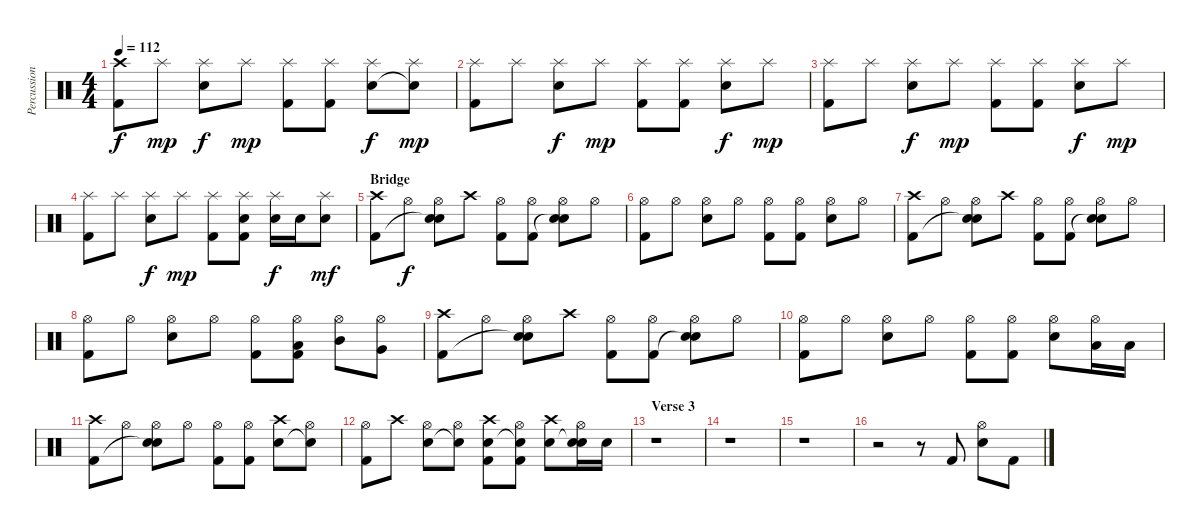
\track ("Percussion" "Percussion") {instrument percussion}
\staff {score}
\articulation defaults
\ts (4 4)
\tempo 112
\clef neutral
\ks c
("Crash high (hit)" "Kick (hit) 2").8{dy f} "Splash (hit)".8{dy mp} ("Splash (hit)" "Electric Snare (hit)").8{dy f} "Splash (hit)".8{dy mp} ("Splash (hit)" "Kick (hit) 2").8 ("Splash (hit)" "Kick (hit) 2").8 ("Splash (hit)" "Electric Snare (hit)").8{dy f} ("Splash (hit)" "Snare (hit)"{t}).8{dy mp} |
("Splash (hit)" "Kick (hit) 2").8 "Splash (hit)".8 ("Splash (hit)" "Electric Snare (hit)").8{dy f} "Splash (hit)".8{dy mp} ("Splash (hit)" "Kick (hit) 2").8 ("Splash (hit)" "Kick (hit) 2").8 ("Splash (hit)" "Electric Snare (hit)").8{dy f} "Splash (hit)".8{dy mp} |
("Splash (hit)" "Kick (hit) 2").8 "Splash (hit)".8 ("Splash (hit)" "Electric Snare (hit)").8{dy f} "Splash (hit)".8{dy mp} ("Splash (hit)" "Kick (hit) 2").8 ("Splash (hit)" "Kick (hit) 2").8 ("Splash (hit)" "Electric Snare (hit)").8{dy f} "Splash (hit)".8{dy mp} |
("Splash (hit)" "Kick (hit) 2").8 "Splash (hit)".8 ("Splash (hit)" "Electric Snare (hit)").8{dy f} "Splash (hit)".8{dy mp} ("Splash (hit)" "Kick (hit) 2").8 ("Splash (hit)" "Electric Snare (hit)" "Kick (hit) 2").8 ("Splash (hit)" "Electric Snare (hit)").16{dy f} "Electric Snare (hit)".16 ("Splash (hit)" "Snare (hit) 2").8{dy mf} |
\section ("" "Bridge")
("Crash high (hit)" "Kick (hit) 2").8{volume 16} "Hi-Hat (open)".8{dy f} ("Hi-Hat (open)" "Snare (hit)"{t} "Electric Snare (hit)").8 "Crash high (hit)".8 ("Hi-Hat (open)" "Kick (hit) 2").8 ("Hi-Hat (open)" "Kick (hit) 2").8 ("Hi-Hat (open)" "Snare (hit)"{t} "Electric Snare (hit)").8 "Hi-Hat (open)".8 |
("Hi-Hat (open)" "Kick (hit) 2").8{volume 16} "Hi-Hat (open)".8 ("Hi-Hat (open)" "Electric Snare (hit)").8 "Hi-Hat (open)".8 ("Hi-Hat (open)" "Kick (hit) 2").8 ("Hi-Hat (open)" "Kick (hit) 2").8 ("Hi-Hat (open)" "Electric Snare (hit)").8 "Hi-Hat (open)".8 |
("Crash high (hit)" "Kick (hit) 2").8{volume 16} "Hi-Hat (open)".8 ("Hi-Hat (open)" "Snare (hit)"{t} "Electric Snare (hit)").8 "Crash high (hit)".8 ("Hi-Hat (open)" "Kick (hit) 2").8 ("Hi-Hat (open)" "Kick (hit) 2").8 ("Hi-Hat (open)" "Snare (hit)"{t} "Electric Snare (hit)").8 "Hi-Hat (open)".8 |
("Hi-Hat (open)" "Kick (hit) 2").8{volume 16} "Hi-Hat (open)".8 ("Hi-Hat (open)" "Electric Snare (hit)").8 "Hi-Hat (open)".8 ("Hi-Hat (open)" "Kick (hit) 2").8 ("Hi-Hat (open)" "Low Tom (hit)" "Kick (hit) 2").8 ("Hi-Hat (open)" "Mid Tom (hit)").8 ("Hi-Hat (open)" "Very Low Tom (hit)").8 |
("Crash high (hit)" "Kick (hit) 2").8{volume 16} "Hi-Hat (open)".8 ("Hi-Hat (open)" "Snare (hit)"{t} "Electric Snare (hit)").8 "Crash high (hit)".8 ("Hi-Hat (open)" "Kick (hit) 2").8 ("Hi-Hat (open)" "Kick (hit) 2").8 ("Hi-Hat (open)" "Snare (hit)"{t} "Electric Snare (hit)").8 "Hi-Hat (open)".8 |
("Hi-Hat (open)" "Kick (hit) 2").8{volume 16} "Hi-Hat (open)".8 ("Hi-Hat (open)" "Electric Snare (hit)").8 "Hi-Hat (open)".8 ("Hi-Hat (open)" "Kick (hit) 2").8 ("Hi-Hat (open)" "Kick (hit) 2").8 ("Hi-Hat (open)" "Electric Snare (hit)").8 ("Hi-Hat (open)" "Low Floor Tom (hit)").16 "Low Floor Tom (hit)".16 |
("Crash high (hit)" "Kick (hit) 2").8{volume 16} "Hi-Hat (open)".8 ("Hi-Hat (open)" "Snare (hit)"{t} "Electric Snare (hit)").8 "Hi-Hat (open)".8 ("Hi-Hat (open)" "Kick (hit) 2").8 ("Hi-Hat (open)" "Kick (hit) 2").8 ("Crash high (hit)" "Electric Snare (hit)").8 ("Hi-Hat (open)" "Snare (hit)"{t}).8 |
("Hi-Hat (open)" "Kick (hit) 2").8{volume 16} "Crash high (hit)".8 ("Hi-Hat (open)" "Electric Snare (hit)").8 ("Hi-Hat (open)" "Snare (hit)"{t}).8 ("Crash high (hit)" "Electric Snare (hit)" "Kick (hit) 2").8 ("Hi-Hat (open)" "Snare (hit)"{t} "Kick (hit) 2").8 ("Crash high (hit)" "Electric Snare (hit)").8 ("Hi-Hat (open)" "Snare (hit)"{t} "Electric Snare (hit)").16 "Electric Snare (hit)".16 |
\section ("" "Verse 3")
r.1 |
r.1 |
r.1 |
r.2 r.8 "Kick (hit) 2".8{volume 10} ("Hi-Hat (open)" "Electric Snare (hit)").8 "Kick (hit) 2".8
